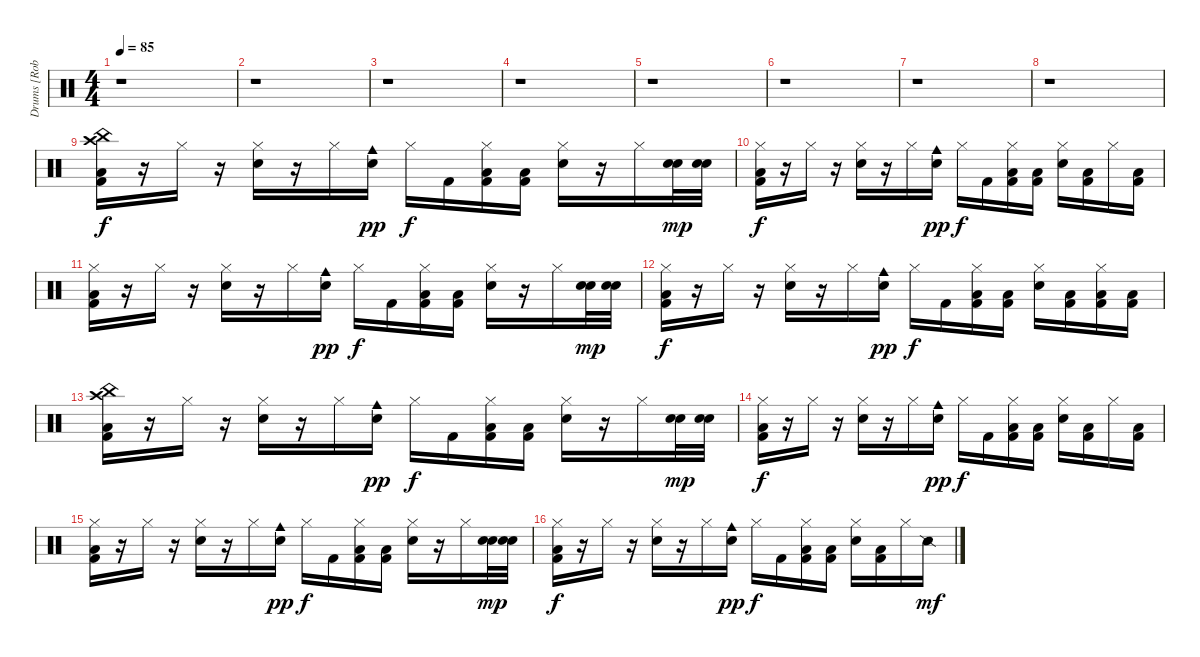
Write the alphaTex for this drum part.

\track ("Drums [Rob Bourdon]" "Drums [Rob") {instrument percussion}
\staff {score}
\articulation defaults
\ts (4 4)
\tempo 85
\clef neutral
\ks c
r.1{dy f} |
r.1 |
r.1 |
r.1 |
r.1 |
r.1 |
r.1 |
r.1 |
("China (hit)" "Crash high (hit)" "Low Floor Tom (hit)" "Kick (hit) 2").16 r.16 "Hi-Hat (closed)".16 r.16 ("Hi-Hat (closed)" "Snare (hit) 2").16 r.16 "Hi-Hat (closed)".16 ("Snare (hit) 2" "Cowbell medium (hit)").16{dy pp} "Hi-Hat (closed)".16{dy f} "Kick (hit) 2".16 ("Hi-Hat (closed)" "Low Floor Tom (hit)" "Kick (hit) 2").16 ("Low Floor Tom (hit)" "Kick (hit) 2").16 ("Hi-Hat (closed)" "Snare (hit) 2").16 r.16 "Hi-Hat (closed)".16 ("Snare (hit) 2" "Snare (hit) 2").32{dy mp} ("Snare (hit) 2" "Snare (hit) 2").32 |
("Hi-Hat (closed)" "Low Floor Tom (hit)" "Kick (hit) 2").16{dy f} r.16 "Hi-Hat (closed)".16 r.16 ("Hi-Hat (closed)" "Snare (hit) 2").16 r.16 "Hi-Hat (closed)".16 ("Snare (hit) 2" "Cowbell medium (hit)").16{dy pp} "Hi-Hat (closed)".16{dy f} "Kick (hit) 2".16 ("Hi-Hat (closed)" "Low Floor Tom (hit)" "Kick (hit) 2").16 ("Low Floor Tom (hit)" "Kick (hit) 2").16 ("Hi-Hat (closed)" "Snare (hit) 2").16 ("Low Floor Tom (hit)" "Kick (hit) 2").16 "Hi-Hat (closed)".16 ("Low Floor Tom (hit)" "Kick (hit) 2").16 |
("Hi-Hat (closed)" "Low Floor Tom (hit)" "Kick (hit) 2").16 r.16 "Hi-Hat (closed)".16 r.16 ("Hi-Hat (closed)" "Snare (hit) 2").16 r.16 "Hi-Hat (closed)".16 ("Snare (hit) 2" "Cowbell medium (hit)").16{dy pp} "Hi-Hat (closed)".16{dy f} "Kick (hit) 2".16 ("Hi-Hat (closed)" "Low Floor Tom (hit)" "Kick (hit) 2").16 ("Low Floor Tom (hit)" "Kick (hit) 2").16 ("Hi-Hat (closed)" "Snare (hit) 2").16 r.16 "Hi-Hat (closed)".16 ("Snare (hit) 2" "Snare (hit) 2").32{dy mp} ("Snare (hit) 2" "Snare (hit) 2").32 |
("Hi-Hat (closed)" "Low Floor Tom (hit)" "Kick (hit) 2").16{dy f} r.16 "Hi-Hat (closed)".16 r.16 ("Hi-Hat (closed)" "Snare (hit) 2").16 r.16 "Hi-Hat (closed)".16 ("Snare (hit) 2" "Cowbell medium (hit)").16{dy pp} "Hi-Hat (closed)".16{dy f} "Kick (hit) 2".16 ("Hi-Hat (closed)" "Low Floor Tom (hit)" "Kick (hit) 2").16 ("Low Floor Tom (hit)" "Kick (hit) 2").16 ("Hi-Hat (closed)" "Snare (hit) 2").16 ("Low Floor Tom (hit)" "Kick (hit) 2").16 ("Hi-Hat (closed)" "Low Floor Tom (hit)" "Kick (hit) 2").16 ("Low Floor Tom (hit)" "Kick (hit) 2").16 |
("China (hit)" "Crash high (hit)" "Low Floor Tom (hit)" "Kick (hit) 2").16 r.16 "Hi-Hat (closed)".16 r.16 ("Hi-Hat (closed)" "Snare (hit) 2").16 r.16 "Hi-Hat (closed)".16 ("Snare (hit) 2" "Cowbell medium (hit)").16{dy pp} "Hi-Hat (closed)".16{dy f} "Kick (hit) 2".16 ("Hi-Hat (closed)" "Low Floor Tom (hit)" "Kick (hit) 2").16 ("Low Floor Tom (hit)" "Kick (hit) 2").16 ("Hi-Hat (closed)" "Snare (hit) 2").16 r.16 "Hi-Hat (closed)".16 ("Snare (hit) 2" "Snare (hit) 2").32{dy mp} ("Snare (hit) 2" "Snare (hit) 2").32 |
("Hi-Hat (closed)" "Low Floor Tom (hit)" "Kick (hit) 2").16{dy f} r.16 "Hi-Hat (closed)".16 r.16 ("Hi-Hat (closed)" "Snare (hit) 2").16 r.16 "Hi-Hat (closed)".16 ("Snare (hit) 2" "Cowbell medium (hit)").16{dy pp} "Hi-Hat (closed)".16{dy f} "Kick (hit) 2".16 ("Hi-Hat (closed)" "Low Floor Tom (hit)" "Kick (hit) 2").16 ("Low Floor Tom (hit)" "Kick (hit) 2").16 ("Hi-Hat (closed)" "Snare (hit) 2").16 ("Low Floor Tom (hit)" "Kick (hit) 2").16 "Hi-Hat (closed)".16 ("Low Floor Tom (hit)" "Kick (hit) 2").16 |
("Hi-Hat (closed)" "Low Floor Tom (hit)" "Kick (hit) 2").16 r.16 "Hi-Hat (closed)".16 r.16 ("Hi-Hat (closed)" "Snare (hit) 2").16 r.16 "Hi-Hat (closed)".16 ("Snare (hit) 2" "Cowbell medium (hit)").16{dy pp} "Hi-Hat (closed)".16{dy f} "Kick (hit) 2".16 ("Hi-Hat (closed)" "Low Floor Tom (hit)" "Kick (hit) 2").16 ("Low Floor Tom (hit)" "Kick (hit) 2").16 ("Hi-Hat (closed)" "Snare (hit) 2").16 r.16 "Hi-Hat (closed)".16 ("Snare (hit) 2" "Snare (hit) 2").32{dy mp} ("Snare (hit) 2" "Snare (hit) 2").32 |
("Hi-Hat (closed)" "Low Floor Tom (hit)" "Kick (hit) 2").16{dy f} r.16 "Hi-Hat (closed)".16 r.16 ("Hi-Hat (closed)" "Snare (hit) 2").16 r.16 "Hi-Hat (closed)".16 ("Snare (hit) 2" "Cowbell medium (hit)").16{dy pp} "Hi-Hat (closed)".16{dy f} "Kick (hit) 2".16 ("Hi-Hat (closed)" "Low Floor Tom (hit)" "Kick (hit) 2").16 ("Low Floor Tom (hit)" "Kick (hit) 2").16 ("Hi-Hat (closed)" "Snare (hit) 2").16 ("Low Floor Tom (hit)" "Kick (hit) 2").16 "Hi-Hat (closed)".16 "Snare (side stick) 2".16{dy mf}
